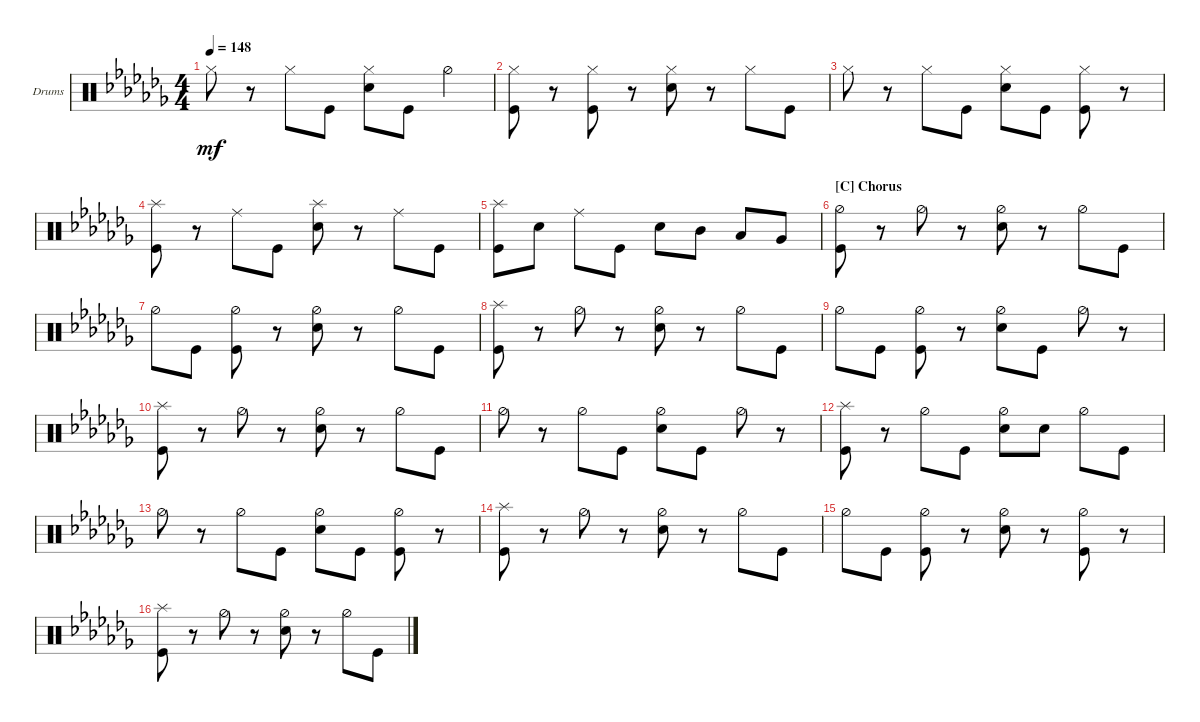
\defaultSystemsLayout 4
\bracketExtendMode groupsimilarinstruments
\firstSystemTrackNameOrientation horizontal
\otherSystemsTrackNameOrientation horizontal
\track ("Drumkit" "Drums") {instrument percussion}
\staff {score}
\articulation defaults
\ts (4 4)
\tempo 148
\clef neutral
\ks abminor "Hi-Hat (closed)".8{dy mf}
r.8 "Hi-Hat (closed)".8 "Kick (hit)".8 ("Snare (hit) 2" "Hi-Hat (closed)").8 "Kick (hit)".8 "Hi-Hat (half)".4 |
("Kick (hit)" "Hi-Hat (closed)").8 r.8 ("Kick (hit)" "Hi-Hat (closed)").8 r.8 ("Snare (hit) 2" "Hi-Hat (closed)").8 r.8 "Hi-Hat (closed)".8 "Kick (hit)".8 |
"Hi-Hat (closed)".8 r.8 "Hi-Hat (closed)".8 "Kick (hit)".8 ("Snare (hit) 2" "Hi-Hat (closed)").8 "Kick (hit)".8 ("Hi-Hat (closed)" "Kick (hit)").8 r.8 |
("Kick (hit)" "Splash (hit)").8 r.8 "Ride (middle)".8 "Kick (hit)".8 ("Snare (hit) 2" "Splash (hit)").8 r.8 "Ride (middle)".8 "Kick (hit)".8 |
("Kick (hit)" "Splash (hit)").8 "Snare (hit) 2".8 "Ride (middle)".8 "Kick (hit)".8 "Snare (hit) 2".8 "Mid Tom (hit)".8 "Low Tom (hit)".8 "Very Low Tom (hit)".8 |
\section ("C" "Chorus")
("Kick (hit)" "Hi-Hat (half)").8 r.8 "Hi-Hat (half)".8 r.8 ("Hi-Hat (half)" "Snare (hit) 2").8 r.8 "Hi-Hat (half)".8 "Kick (hit)".8 |
"Hi-Hat (half)".8 "Kick (hit)".8 ("Kick (hit)" "Hi-Hat (half)").8 r.8 ("Snare (hit) 2" "Hi-Hat (half)").8 r.8 "Hi-Hat (half)".8 "Kick (hit)".8 |
("Kick (hit)" "Splash (hit)").8 r.8 "Hi-Hat (half)".8 r.8 ("Hi-Hat (half)" "Snare (hit) 2").8 r.8 "Hi-Hat (half)".8 "Kick (hit)".8 |
"Hi-Hat (half)".8 "Kick (hit)".8 ("Kick (hit)" "Hi-Hat (half)").8 r.8 ("Snare (hit) 2" "Hi-Hat (half)").8 "Kick (hit)".8 "Hi-Hat (half)".8 r.8 |
("Kick (hit)" "Splash (hit)").8 r.8 "Hi-Hat (half)".8 r.8 ("Hi-Hat (half)" "Snare (hit) 2").8 r.8 "Hi-Hat (half)".8 "Kick (hit)".8 |
"Hi-Hat (half)".8 r.8 "Hi-Hat (half)".8 "Kick (hit)".8 ("Snare (hit) 2" "Hi-Hat (half)").8 "Kick (hit)".8 "Hi-Hat (half)".8 r.8 |
("Kick (hit)" "Splash (hit)").8 r.8 "Hi-Hat (half)".8 "Kick (hit)".8 ("Snare (hit) 2" "Hi-Hat (half)").8 "Snare (hit) 2".8 "Hi-Hat (half)".8 "Kick (hit)".8 |
"Hi-Hat (half)".8 r.8 "Hi-Hat (half)".8 "Kick (hit)".8 ("Hi-Hat (half)" "Snare (hit) 2").8 "Kick (hit)".8 ("Hi-Hat (half)" "Kick (hit)").8 r.8 |
("Splash (hit)" "Kick (hit)").8 r.8 "Hi-Hat (half)".8 r.8 ("Hi-Hat (half)" "Snare (hit) 2").8 r.8 "Hi-Hat (half)".8 "Kick (hit)".8 |
"Hi-Hat (half)".8 "Kick (hit)".8 ("Hi-Hat (half)" "Kick (hit)").8 r.8 ("Hi-Hat (half)" "Snare (hit) 2").8 r.8 ("Hi-Hat (half)" "Kick (hit)").8 r.8 |
("Splash (hit)" "Kick (hit)").8 r.8 "Hi-Hat (half)".8 r.8 ("Hi-Hat (half)" "Snare (hit) 2").8 r.8 "Hi-Hat (half)".8 "Kick (hit)".8
